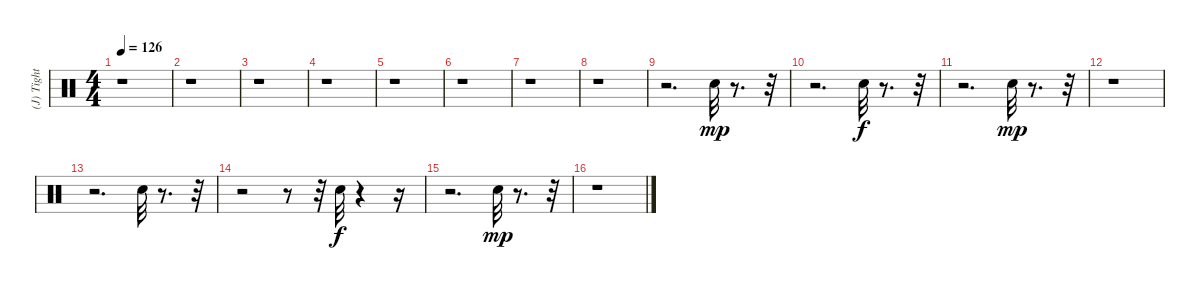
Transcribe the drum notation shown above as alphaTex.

\track ("(J) Tight Snare" "(J) Tight ") {instrument percussion}
\staff {score}
\articulation defaults
\ts (4 4)
\tempo 126
\clef neutral
\ks c
r.1{dy mf} |
r.1 |
r.1 |
r.1 |
r.1 |
r.1 |
r.1 |
r.1 |
r.2{d} "Electric Snare (hit)".32{dy mp} r.8{d} r.32 |
r.2{d} "Electric Snare (hit)".32{dy f} r.8{d} r.32 |
r.2{d} "Electric Snare (hit)".32{dy mp} r.8{d} r.32 |
r.1 |
r.2{d} "Electric Snare (hit)".32 r.8{d} r.32 |
r.2 r.8 r.32 "Electric Snare (hit)".32{dy f} r.4 r.16 |
r.2{d} "Electric Snare (hit)".32{dy mp} r.8{d} r.32 |
r.1
